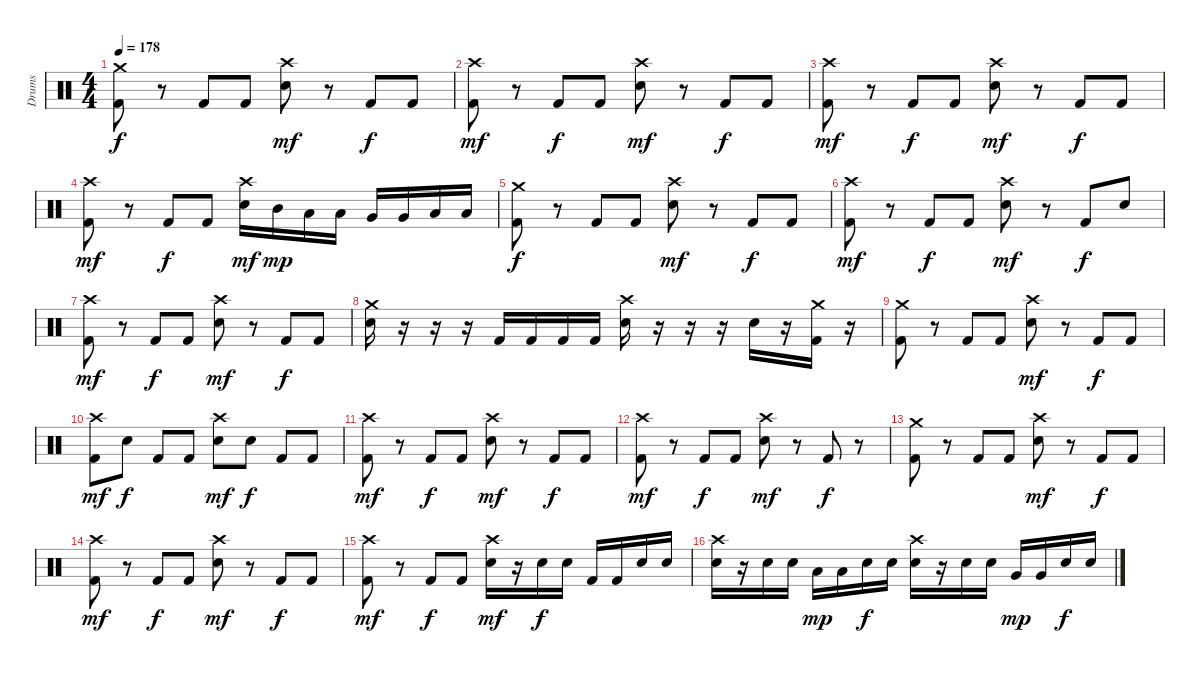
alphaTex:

\track ("Drums" "Drums") {instrument percussion}
\staff {score}
\articulation defaults
\ts (4 4)
\tempo 178
\clef neutral
\ks c
("Crash medium (hit)" "Kick (hit) 2").8{dy f} r.8 "Kick (hit) 2".8 "Kick (hit) 2".8 ("Crash high (hit)" "Snare (hit) 2").8{dy mf} r.8 "Kick (hit) 2".8{dy f} "Kick (hit) 2".8 |
("Crash high (hit)" "Kick (hit) 2").8{dy mf} r.8 "Kick (hit) 2".8{dy f} "Kick (hit) 2".8 ("Crash high (hit)" "Snare (hit) 2").8{dy mf} r.8 "Kick (hit) 2".8{dy f} "Kick (hit) 2".8 |
("Crash high (hit)" "Kick (hit) 2").8{dy mf} r.8 "Kick (hit) 2".8{dy f} "Kick (hit) 2".8 ("Crash high (hit)" "Snare (hit) 2").8{dy mf} r.8 "Kick (hit) 2".8{dy f} "Kick (hit) 2".8 |
("Crash high (hit)" "Kick (hit) 2").8{dy mf} r.8 "Kick (hit) 2".8{dy f} "Kick (hit) 2".8 ("Crash high (hit)" "Snare (hit) 2").16{dy mf} "Mid Tom (hit)".16{dy mp} "Low Tom (hit)".16 "Low Tom (hit)".16 "Very Low Tom (hit)".16 "Very Low Tom (hit)".16 "Low Floor Tom (hit)".16 "Low Floor Tom (hit)".16 |
("Crash medium (hit)" "Kick (hit) 2").8{dy f} r.8 "Kick (hit) 2".8 "Kick (hit) 2".8 ("Crash high (hit)" "Snare (hit) 2").8{dy mf} r.8 "Kick (hit) 2".8{dy f} "Kick (hit) 2".8 |
("Crash high (hit)" "Kick (hit) 2").8{dy mf} r.8 "Kick (hit) 2".8{dy f} "Kick (hit) 2".8 ("Crash high (hit)" "Snare (hit) 2").8{dy mf} r.8 "Kick (hit) 2".8{dy f} "Snare (hit) 2".8 |
("Crash high (hit)" "Kick (hit) 2").8{dy mf} r.8 "Kick (hit) 2".8{dy f} "Kick (hit) 2".8 ("Crash high (hit)" "Snare (hit) 2").8{dy mf} r.8 "Kick (hit) 2".8{dy f} "Kick (hit) 2".8 |
("Crash medium (hit)" "Snare (hit) 2").16 r.16 r.16 r.16 "Kick (hit) 2".16 "Kick (hit) 2".16 "Kick (hit) 2".16 "Kick (hit) 2".16 ("Crash high (hit)" "Snare (hit) 2").16 r.16 r.16 r.16 "Snare (hit) 2".16 r.16 ("Crash medium (hit)" "Kick (hit) 2").16 r.16 |
("Crash medium (hit)" "Kick (hit) 2").8 r.8 "Kick (hit) 2".8 "Kick (hit) 2".8 ("Crash high (hit)" "Snare (hit) 2").8{dy mf} r.8 "Kick (hit) 2".8{dy f} "Kick (hit) 2".8 |
("Crash high (hit)" "Kick (hit) 2").8{dy mf} "Snare (hit) 2".8{dy f} "Kick (hit) 2".8 "Kick (hit) 2".8 ("Crash high (hit)" "Snare (hit) 2").8{dy mf} "Snare (hit) 2".8{dy f} "Kick (hit) 2".8 "Kick (hit) 2".8 |
("Crash high (hit)" "Kick (hit) 2").8{dy mf} r.8 "Kick (hit) 2".8{dy f} "Kick (hit) 2".8 ("Crash high (hit)" "Snare (hit) 2").8{dy mf} r.8 "Kick (hit) 2".8{dy f} "Kick (hit) 2".8 |
("Crash high (hit)" "Kick (hit) 2").8{dy mf} r.8 "Kick (hit) 2".8{dy f} "Kick (hit) 2".8 ("Crash high (hit)" "Snare (hit) 2").8{dy mf} r.8 "Kick (hit) 2".8{dy f} r.8 |
("Crash medium (hit)" "Kick (hit) 2").8 r.8 "Kick (hit) 2".8 "Kick (hit) 2".8 ("Crash high (hit)" "Snare (hit) 2").8{dy mf} r.8 "Kick (hit) 2".8{dy f} "Kick (hit) 2".8 |
("Crash high (hit)" "Kick (hit) 2").8{dy mf} r.8 "Kick (hit) 2".8{dy f} "Kick (hit) 2".8 ("Crash high (hit)" "Snare (hit) 2").8{dy mf} r.8 "Kick (hit) 2".8{dy f} "Kick (hit) 2".8 |
("Crash high (hit)" "Kick (hit) 2").8{dy mf} r.8 "Kick (hit) 2".8{dy f} "Kick (hit) 2".8 ("Crash high (hit)" "Snare (hit) 2").16{dy mf} r.16 "Snare (hit) 2".16{dy f} "Snare (hit) 2".16 "Kick (hit) 2".16 "Kick (hit) 2".16 "Snare (hit) 2".16 "Snare (hit) 2".16 |
("Crash high (hit)" "Snare (hit) 2").16 r.16 "Snare (hit) 2".16 "Snare (hit) 2".16 "Low Tom (hit)".16{dy mp} "Low Tom (hit)".16 "Snare (hit) 2".16{dy f} "Snare (hit) 2".16 ("Crash high (hit)" "Snare (hit) 2").16 r.16 "Snare (hit) 2".16 "Snare (hit) 2".16 "Very Low Tom (hit)".16{dy mp} "Very Low Tom (hit)".16 "Snare (hit) 2".16{dy f} "Snare (hit) 2".16
